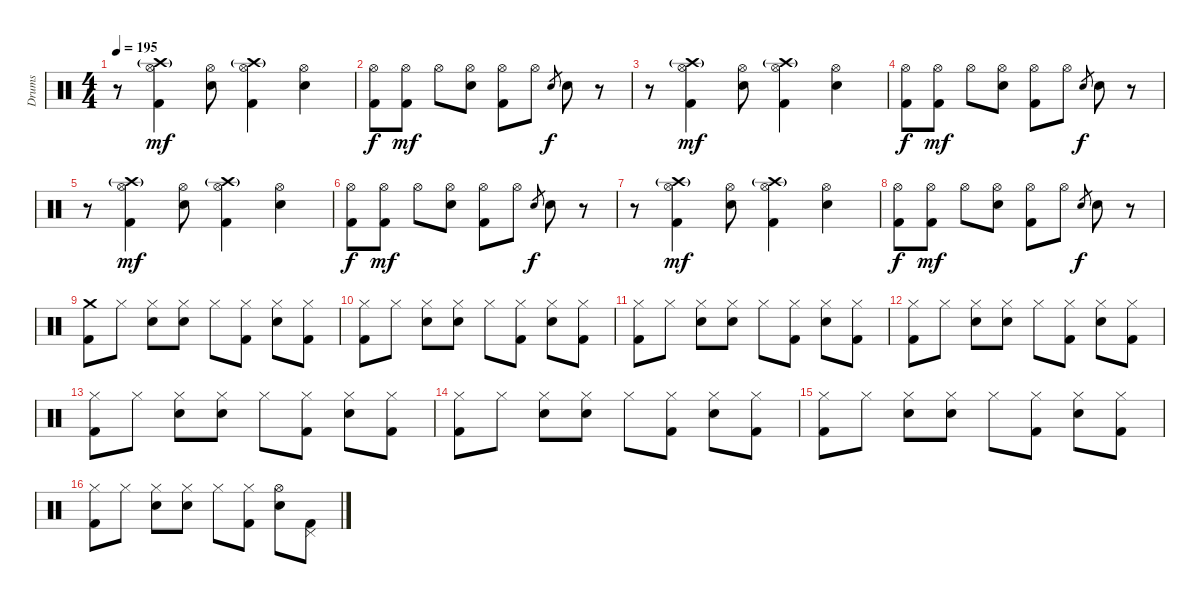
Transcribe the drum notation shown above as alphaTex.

\track ("Drums" "Drums") {instrument percussion}
\staff {score}
\articulation defaults
\ts (4 4)
\tempo 195
\clef neutral
\ks c
r.8{dy f} ("Crash high (hit)"{g} "Hi-Hat (open)" "Kick (hit) 2").4{dy mf} ("Hi-Hat (open)" "Electric Snare (hit)").8 ("Crash high (hit)"{g} "Hi-Hat (open)" "Kick (hit) 2").4 ("Hi-Hat (open)" "Electric Snare (hit)").4 |
("Hi-Hat (open)" "Kick (hit) 2").8{dy f} ("Hi-Hat (open)" "Kick (hit) 2").8{dy mf} "Hi-Hat (open)".8 ("Hi-Hat (open)" "Electric Snare (hit)").8 ("Hi-Hat (open)" "Kick (hit) 2").8 "Hi-Hat (open)".8 "Electric Snare (hit)".8{gr dy f} "Electric Snare (hit)".8 r.8 |
r.8 ("Crash high (hit)"{g} "Hi-Hat (open)" "Kick (hit) 2").4{dy mf} ("Hi-Hat (open)" "Electric Snare (hit)").8 ("Crash high (hit)"{g} "Hi-Hat (open)" "Kick (hit) 2").4 ("Hi-Hat (open)" "Electric Snare (hit)").4 |
("Hi-Hat (open)" "Kick (hit) 2").8{dy f} ("Hi-Hat (open)" "Kick (hit) 2").8{dy mf} "Hi-Hat (open)".8 ("Hi-Hat (open)" "Electric Snare (hit)").8 ("Hi-Hat (open)" "Kick (hit) 2").8 "Hi-Hat (open)".8 "Electric Snare (hit)".8{gr dy f} "Electric Snare (hit)".8 r.8 |
r.8 ("Crash high (hit)"{g} "Hi-Hat (open)" "Kick (hit) 2").4{dy mf} ("Hi-Hat (open)" "Electric Snare (hit)").8 ("Crash high (hit)"{g} "Hi-Hat (open)" "Kick (hit) 2").4 ("Hi-Hat (open)" "Electric Snare (hit)").4 |
("Hi-Hat (open)" "Kick (hit) 2").8{dy f} ("Hi-Hat (open)" "Kick (hit) 2").8{dy mf} "Hi-Hat (open)".8 ("Hi-Hat (open)" "Electric Snare (hit)").8 ("Hi-Hat (open)" "Kick (hit) 2").8 "Hi-Hat (open)".8 "Electric Snare (hit)".8{gr dy f} "Electric Snare (hit)".8 r.8 |
r.8 ("Crash high (hit)"{g} "Hi-Hat (open)" "Kick (hit) 2").4{dy mf} ("Hi-Hat (open)" "Electric Snare (hit)").8 ("Crash high (hit)"{g} "Hi-Hat (open)" "Kick (hit) 2").4 ("Hi-Hat (open)" "Electric Snare (hit)").4 |
("Hi-Hat (open)" "Kick (hit) 2").8{dy f} ("Hi-Hat (open)" "Kick (hit) 2").8{dy mf} "Hi-Hat (open)".8 ("Hi-Hat (open)" "Electric Snare (hit)").8 ("Hi-Hat (open)" "Kick (hit) 2").8 "Hi-Hat (open)".8 "Electric Snare (hit)".8{gr dy f} "Electric Snare (hit)".8 r.8 |
("Crash medium (hit)" "Kick (hit) 2").8 "Hi-Hat (closed)".8 ("Hi-Hat (closed)" "Electric Snare (hit)").8 ("Hi-Hat (closed)" "Electric Snare (hit)").8 "Hi-Hat (closed)".8 ("Hi-Hat (closed)" "Kick (hit) 2").8 ("Hi-Hat (closed)" "Electric Snare (hit)").8 ("Hi-Hat (closed)" "Kick (hit) 2").8 |
("Hi-Hat (closed)" "Kick (hit) 2").8 "Hi-Hat (closed)".8 ("Hi-Hat (closed)" "Electric Snare (hit)").8 ("Hi-Hat (closed)" "Electric Snare (hit)").8 "Hi-Hat (closed)".8 ("Hi-Hat (closed)" "Kick (hit) 2").8 ("Hi-Hat (closed)" "Electric Snare (hit)").8 ("Hi-Hat (closed)" "Kick (hit) 2").8 |
("Hi-Hat (closed)" "Kick (hit) 2").8 "Hi-Hat (closed)".8 ("Hi-Hat (closed)" "Electric Snare (hit)").8 ("Hi-Hat (closed)" "Electric Snare (hit)").8 "Hi-Hat (closed)".8 ("Hi-Hat (closed)" "Kick (hit) 2").8 ("Hi-Hat (closed)" "Electric Snare (hit)").8 ("Hi-Hat (closed)" "Kick (hit) 2").8 |
("Hi-Hat (closed)" "Kick (hit) 2").8 "Hi-Hat (closed)".8 ("Hi-Hat (closed)" "Electric Snare (hit)").8 ("Hi-Hat (closed)" "Electric Snare (hit)").8 "Hi-Hat (closed)".8 ("Hi-Hat (closed)" "Kick (hit) 2").8 ("Hi-Hat (closed)" "Electric Snare (hit)").8 ("Hi-Hat (closed)" "Kick (hit) 2").8 |
("Hi-Hat (closed)" "Kick (hit) 2").8 "Hi-Hat (closed)".8 ("Hi-Hat (closed)" "Electric Snare (hit)").8 ("Hi-Hat (closed)" "Electric Snare (hit)").8 "Hi-Hat (closed)".8 ("Hi-Hat (closed)" "Kick (hit) 2").8 ("Hi-Hat (closed)" "Electric Snare (hit)").8 ("Hi-Hat (closed)" "Kick (hit) 2").8 |
("Hi-Hat (closed)" "Kick (hit) 2").8 "Hi-Hat (closed)".8 ("Hi-Hat (closed)" "Electric Snare (hit)").8 ("Hi-Hat (closed)" "Electric Snare (hit)").8 "Hi-Hat (closed)".8 ("Hi-Hat (closed)" "Kick (hit) 2").8 ("Hi-Hat (closed)" "Electric Snare (hit)").8 ("Hi-Hat (closed)" "Kick (hit) 2").8 |
("Hi-Hat (closed)" "Kick (hit) 2").8 "Hi-Hat (closed)".8 ("Hi-Hat (closed)" "Electric Snare (hit)").8 ("Hi-Hat (closed)" "Electric Snare (hit)").8 "Hi-Hat (closed)".8 ("Hi-Hat (closed)" "Kick (hit) 2").8 ("Hi-Hat (closed)" "Electric Snare (hit)").8 ("Hi-Hat (closed)" "Kick (hit) 2").8 |
("Hi-Hat (closed)" "Kick (hit) 2").8 "Hi-Hat (closed)".8 ("Hi-Hat (closed)" "Electric Snare (hit)").8 ("Hi-Hat (closed)" "Electric Snare (hit)").8 "Hi-Hat (closed)".8 ("Hi-Hat (closed)" "Kick (hit) 2").8 ("Hi-Hat (open)" "Electric Snare (hit)").8 ("Pedal Hi-Hat (hit)" "Kick (hit) 2").8
